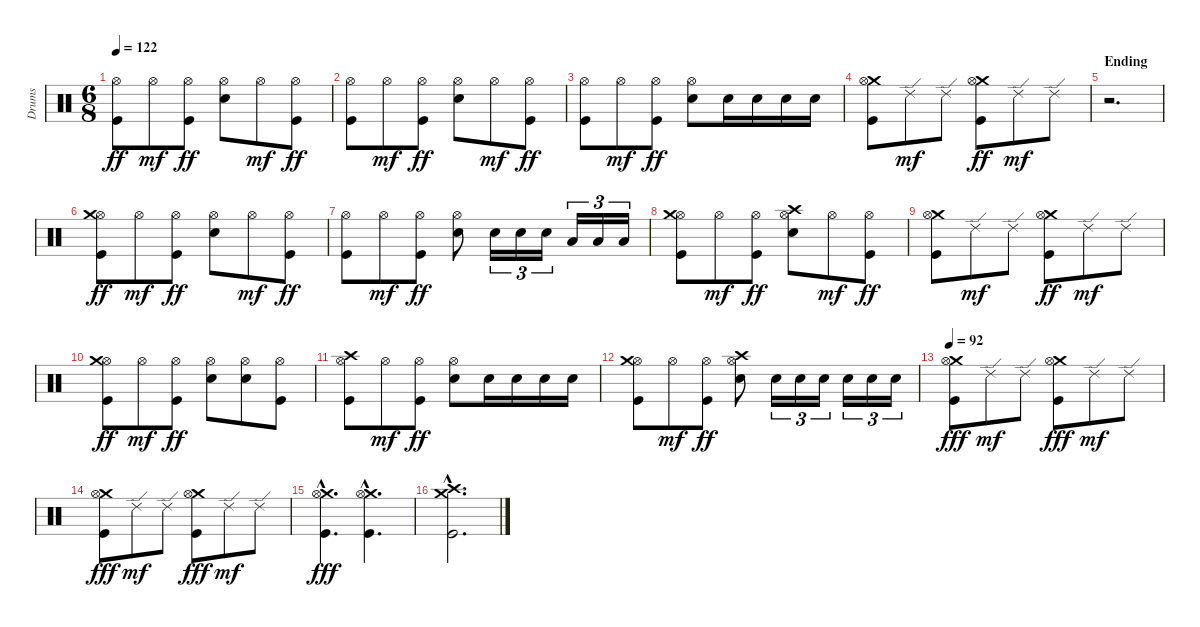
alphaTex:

\track ("Drums" "Drums") {instrument percussion}
\staff {score}
\articulation defaults
\ts (6 8)
\tempo 122
\clef neutral
\ks c
("Hi-Hat (open)" "Kick (hit)").8{dy ff} "Hi-Hat (open)".8{dy mf} ("Hi-Hat (open)" "Kick (hit)").8{dy ff} ("Hi-Hat (open)" "Electric Snare (hit)").8 "Hi-Hat (open)".8{dy mf} ("Hi-Hat (open)" "Kick (hit)").8{dy ff} |
("Hi-Hat (open)" "Kick (hit)").8 "Hi-Hat (open)".8{dy mf} ("Hi-Hat (open)" "Kick (hit)").8{dy ff} ("Hi-Hat (open)" "Electric Snare (hit)").8 "Hi-Hat (open)".8{dy mf} ("Hi-Hat (open)" "Kick (hit)").8{dy ff} |
("Hi-Hat (open)" "Kick (hit)").8 "Hi-Hat (open)".8{dy mf} ("Hi-Hat (open)" "Kick (hit)").8{dy ff} ("Hi-Hat (open)" "Electric Snare (hit)").8 "Electric Snare (hit)".16 "Electric Snare (hit)".16 "Electric Snare (hit)".16 "Electric Snare (hit)".16 |
("Crash medium (hit)" "Hi-Hat (open)" "Kick (hit)").8 "Ride (edge) 2".8{dy mf} "Ride (edge) 2".8 ("Crash medium (hit)" "Hi-Hat (open)" "Kick (hit)").8{dy ff} "Ride (edge) 2".8{dy mf} "Ride (edge) 2".8 |
\section ("" "Ending")
r.2{d} |
("Hi-Hat (open)" "Crash medium (hit)" "Kick (hit)").8{dy ff} "Hi-Hat (open)".8{dy mf} ("Hi-Hat (open)" "Kick (hit)").8{dy ff} ("Hi-Hat (open)" "Electric Snare (hit)").8 "Hi-Hat (open)".8{dy mf} ("Hi-Hat (open)" "Kick (hit)").8{dy ff} |
("Hi-Hat (open)" "Kick (hit)").8 "Hi-Hat (open)".8{dy mf} ("Hi-Hat (open)" "Kick (hit)").8{dy ff} ("Hi-Hat (open)" "Electric Snare (hit)").8 "Electric Snare (hit)".16{tu (3 2)} "Electric Snare (hit)".16{tu (3 2)} "Electric Snare (hit)".16{tu (3 2)} "Low Tom (hit)".16{tu (3 2)} "Low Tom (hit)".16{tu (3 2)} "Low Floor Tom (hit)".16{tu (3 2)} |
("Hi-Hat (open)" "Crash medium (hit)" "Kick (hit)").8 "Hi-Hat (open)".8{dy mf} ("Hi-Hat (open)" "Kick (hit)").8{dy ff} ("Hi-Hat (open)" "Crash high (hit)" "Electric Snare (hit)").8 "Hi-Hat (open)".8{dy mf} ("Hi-Hat (open)" "Kick (hit)").8{dy ff} |
("Crash medium (hit)" "Hi-Hat (open)" "Kick (hit)").8 "Ride (edge) 2".8{dy mf} "Ride (edge) 2".8 ("Crash medium (hit)" "Hi-Hat (open)" "Kick (hit)").8{dy ff} "Ride (edge) 2".8{dy mf} "Ride (edge) 2".8 |
("Hi-Hat (open)" "Crash medium (hit)" "Kick (hit)").8{dy ff} "Hi-Hat (open)".8{dy mf} ("Hi-Hat (open)" "Kick (hit)").8{dy ff} ("Hi-Hat (open)" "Electric Snare (hit)").8 ("Hi-Hat (open)" "Electric Snare (hit)").8 ("Hi-Hat (open)" "Kick (hit)").8 |
("Hi-Hat (open)" "Crash high (hit)" "Kick (hit)").8 "Hi-Hat (open)".8{dy mf} ("Hi-Hat (open)" "Kick (hit)").8{dy ff} ("Hi-Hat (open)" "Electric Snare (hit)").8 "Electric Snare (hit)".16 "Electric Snare (hit)".16 "Electric Snare (hit)".16 "Electric Snare (hit)".16 |
("Hi-Hat (open)" "Crash medium (hit)" "Kick (hit)").8 "Hi-Hat (open)".8{dy mf} ("Hi-Hat (open)" "Kick (hit)").8{dy ff} ("Hi-Hat (open)" "Crash high (hit)" "Electric Snare (hit)").8 "Electric Snare (hit)".16{tu (3 2)} "Electric Snare (hit)".16{tu (3 2)} "Electric Snare (hit)".16{tu (3 2)} "Electric Snare (hit)".16{tu (3 2)} "Electric Snare (hit)".16{tu (3 2)} "Electric Snare (hit)".16{tu (3 2)} |
\tempo 92
("Crash medium (hit)" "Hi-Hat (open)" "Kick (hit)").8{dy fff} "Ride (edge) 2".8{dy mf} "Ride (edge) 2".8 ("Crash medium (hit)" "Hi-Hat (open)" "Kick (hit)").8{dy fff} "Ride (edge) 2".8{dy mf} "Ride (edge) 2".8 |
("Crash medium (hit)" "Hi-Hat (open)" "Kick (hit)").8{dy fff} "Ride (edge) 2".8{dy mf} "Ride (edge) 2".8 ("Crash medium (hit)" "Hi-Hat (open)" "Kick (hit)").8{dy fff} "Ride (edge) 2".8{dy mf} "Ride (edge) 2".8 |
("Crash medium (hit)"{hac} "Hi-Hat (open)"{hac} "Kick (hit)"{hac}).4{d dy fff} ("Crash medium (hit)"{hac} "Hi-Hat (open)"{hac} "Kick (hit)"{hac}).4{d} |
("Crash medium (hit)"{hac} "Crash high (hit)"{hac} "Kick (hit)"{hac}).2{d}
